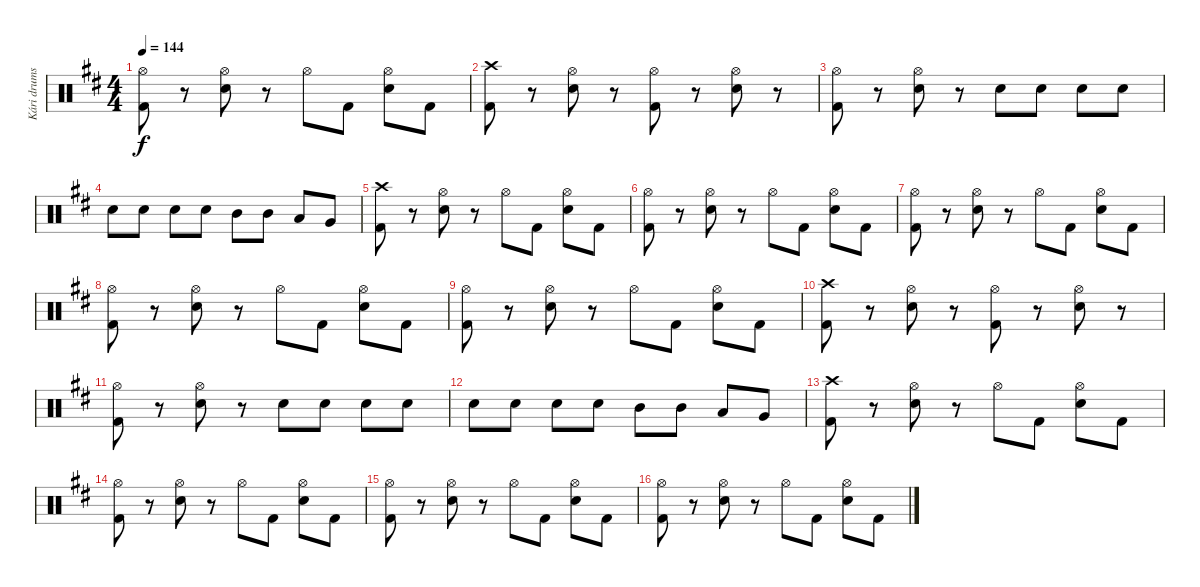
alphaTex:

\track ("Kári drums" "Kári drums") {instrument percussion}
\staff {score}
\articulation defaults
\ts (4 4)
\tempo 144
\clef neutral
\ks bminor
("Hi-Hat (open)" "Kick (hit) 2").8{dy f} r.8 ("Hi-Hat (open)" "Snare (hit) 2").8 r.8 "Hi-Hat (open)".8 "Kick (hit) 2".8 ("Hi-Hat (open)" "Snare (hit) 2").8 "Kick (hit) 2".8 |
("Crash high (hit)" "Kick (hit) 2").8 r.8 ("Hi-Hat (open)" "Snare (hit) 2").8 r.8 ("Hi-Hat (open)" "Kick (hit) 2").8 r.8 ("Hi-Hat (open)" "Snare (hit) 2").8 r.8 |
("Hi-Hat (open)" "Kick (hit) 2").8 r.8 ("Hi-Hat (open)" "Snare (hit) 2").8 r.8 "Snare (hit) 2".8 "Snare (hit) 2".8 "Snare (hit) 2".8 "Snare (hit) 2".8 |
"Snare (hit) 2".8 "Snare (hit) 2".8 "Snare (hit) 2".8 "Snare (hit) 2".8 "Mid Tom (hit)".8 "Mid Tom (hit)".8 "Low Tom (hit)".8 "Very Low Tom (hit)".8 |
("Crash high (hit)" "Kick (hit) 2").8 r.8 ("Hi-Hat (open)" "Snare (hit) 2").8 r.8 "Hi-Hat (open)".8 "Kick (hit) 2".8 ("Hi-Hat (open)" "Snare (hit) 2").8 "Kick (hit) 2".8 |
("Hi-Hat (open)" "Kick (hit) 2").8 r.8 ("Hi-Hat (open)" "Snare (hit) 2").8 r.8 "Hi-Hat (open)".8 "Kick (hit) 2".8 ("Hi-Hat (open)" "Snare (hit) 2").8 "Kick (hit) 2".8 |
("Hi-Hat (open)" "Kick (hit) 2").8 r.8 ("Hi-Hat (open)" "Snare (hit) 2").8 r.8 "Hi-Hat (open)".8 "Kick (hit) 2".8 ("Hi-Hat (open)" "Snare (hit) 2").8 "Kick (hit) 2".8 |
("Hi-Hat (open)" "Kick (hit) 2").8 r.8 ("Hi-Hat (open)" "Snare (hit) 2").8 r.8 "Hi-Hat (open)".8 "Kick (hit) 2".8 ("Hi-Hat (open)" "Snare (hit) 2").8 "Kick (hit) 2".8 |
("Hi-Hat (open)" "Kick (hit) 2").8 r.8 ("Hi-Hat (open)" "Snare (hit) 2").8 r.8 "Hi-Hat (open)".8 "Kick (hit) 2".8 ("Hi-Hat (open)" "Snare (hit) 2").8 "Kick (hit) 2".8 |
("Crash high (hit)" "Kick (hit) 2").8 r.8 ("Hi-Hat (open)" "Snare (hit) 2").8 r.8 ("Hi-Hat (open)" "Kick (hit) 2").8 r.8 ("Hi-Hat (open)" "Snare (hit) 2").8 r.8 |
("Hi-Hat (open)" "Kick (hit) 2").8 r.8 ("Hi-Hat (open)" "Snare (hit) 2").8 r.8 "Snare (hit) 2".8 "Snare (hit) 2".8 "Snare (hit) 2".8 "Snare (hit) 2".8 |
"Snare (hit) 2".8 "Snare (hit) 2".8 "Snare (hit) 2".8 "Snare (hit) 2".8 "Mid Tom (hit)".8 "Mid Tom (hit)".8 "Low Tom (hit)".8 "Very Low Tom (hit)".8 |
("Crash high (hit)" "Kick (hit) 2").8 r.8 ("Hi-Hat (open)" "Snare (hit) 2").8 r.8 "Hi-Hat (open)".8 "Kick (hit) 2".8 ("Hi-Hat (open)" "Snare (hit) 2").8 "Kick (hit) 2".8 |
("Hi-Hat (open)" "Kick (hit) 2").8 r.8 ("Hi-Hat (open)" "Snare (hit) 2").8 r.8 "Hi-Hat (open)".8 "Kick (hit) 2".8 ("Hi-Hat (open)" "Snare (hit) 2").8 "Kick (hit) 2".8 |
("Hi-Hat (open)" "Kick (hit) 2").8 r.8 ("Hi-Hat (open)" "Snare (hit) 2").8 r.8 "Hi-Hat (open)".8 "Kick (hit) 2".8 ("Hi-Hat (open)" "Snare (hit) 2").8 "Kick (hit) 2".8 |
("Hi-Hat (open)" "Kick (hit) 2").8 r.8 ("Hi-Hat (open)" "Snare (hit) 2").8 r.8 "Hi-Hat (open)".8 "Kick (hit) 2".8 ("Hi-Hat (open)" "Snare (hit) 2").8 "Kick (hit) 2".8
